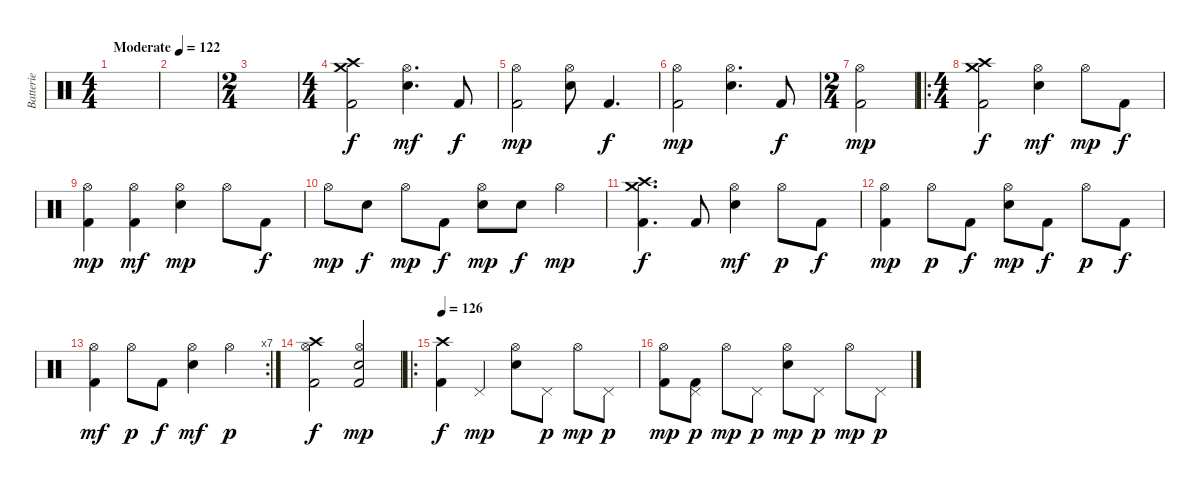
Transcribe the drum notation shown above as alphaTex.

\track ("Batterie" "Batterie") {instrument percussion}
\staff {score}
\articulation defaults
\ts (4 4)
\tempo (122 "Moderate")
\clef neutral
\ks c
|
|
\ts (2 4)
|
\ts (4 4)
("Crash high (hit)" "Crash medium (hit)" "Kick (hit) 2").2 ("Hi-Hat (open)" "Electric Snare (hit)").4{d dy mf} "Kick (hit) 2".8{dy f} |
("Hi-Hat (open)" "Kick (hit) 2").2{dy mp} ("Hi-Hat (open)" "Electric Snare (hit)").8 "Kick (hit) 2".4{d dy f} |
("Hi-Hat (open)" "Kick (hit) 2").2{dy mp} ("Hi-Hat (open)" "Electric Snare (hit)").4{d} "Kick (hit) 2".8{dy f} |
\ts (2 4)
("Hi-Hat (open)" "Kick (hit) 2").2{dy mp} |
\ro
\ts (4 4)
("Crash high (hit)" "Crash medium (hit)" "Kick (hit) 2").2{dy f} ("Hi-Hat (open)" "Electric Snare (hit)").4{dy mf} "Hi-Hat (open)".8{dy mp} "Kick (hit) 2".8{dy f} |
("Hi-Hat (open)" "Kick (hit) 2").4{dy mp} ("Hi-Hat (open)" "Kick (hit) 2").4{dy mf} ("Hi-Hat (open)" "Electric Snare (hit)").4{dy mp} "Hi-Hat (open)".8 "Kick (hit) 2".8{dy f} |
"Hi-Hat (open)".8{dy mp} "Electric Snare (hit)".8{dy f} "Hi-Hat (open)".8{dy mp} "Kick (hit) 2".8{dy f} ("Hi-Hat (open)" "Electric Snare (hit)").8{dy mp} "Electric Snare (hit)".8{dy f} "Hi-Hat (open)".4{dy mp} |
("Crash high (hit)" "Crash medium (hit)" "Kick (hit) 2").4{d dy f} "Kick (hit) 2".8 ("Hi-Hat (open)" "Electric Snare (hit)").4{dy mf} "Hi-Hat (open)".8{dy p} "Kick (hit) 2".8{dy f} |
("Hi-Hat (open)" "Kick (hit) 2").4{dy mp} "Hi-Hat (open)".8{dy p} "Kick (hit) 2".8{dy f} ("Hi-Hat (open)" "Electric Snare (hit)").8{dy mp} "Kick (hit) 2".8{dy f} "Hi-Hat (open)".8{dy p} "Kick (hit) 2".8{dy f} |
\rc 7
("Hi-Hat (open)" "Kick (hit) 2").4{dy mf} "Hi-Hat (open)".8{dy p} "Kick (hit) 2".8{dy f} ("Hi-Hat (open)" "Electric Snare (hit)").4{dy mf} "Hi-Hat (open)".4{dy p} |
("Crash high (hit)" "Hi-Hat (open)" "Kick (hit) 2").2{dy f} ("Hi-Hat (open)" "Electric Snare (hit)" "Kick (hit) 2").2{dy mp} |
\ro
\tempo 126
("Crash high (hit)" "Kick (hit) 2").4{dy f} "Pedal Hi-Hat (hit)".4{dy mp} ("Hi-Hat (open)" "Electric Snare (hit)").8 "Pedal Hi-Hat (hit)".8{dy p} "Hi-Hat (open)".8{dy mp} "Pedal Hi-Hat (hit)".8{dy p} |
("Hi-Hat (open)" "Kick (hit) 2").8{dy mp} ("Pedal Hi-Hat (hit)" "Kick (hit) 2").8{dy p} "Hi-Hat (open)".8{dy mp} "Pedal Hi-Hat (hit)".8{dy p} ("Hi-Hat (open)" "Electric Snare (hit)").8{dy mp} "Pedal Hi-Hat (hit)".8{dy p} "Hi-Hat (open)".8{dy mp} "Pedal Hi-Hat (hit)".8{dy p}
